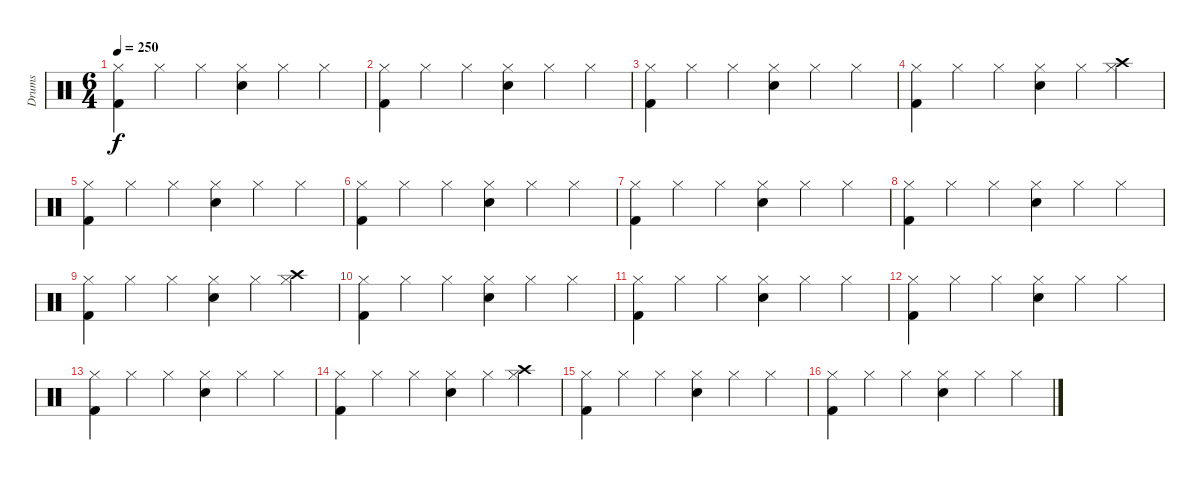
\track ("Drums" "Drums") {instrument percussion}
\staff {score}
\articulation defaults
\ts (6 4)
\tempo 250
\clef neutral
\ks c
("Hi-Hat (closed)" "Kick (hit) 2").4{dy f} "Hi-Hat (closed)".4 "Hi-Hat (closed)".4 ("Hi-Hat (closed)" "Snare (hit) 2").4 "Hi-Hat (closed)".4 "Hi-Hat (closed)".4 |
("Hi-Hat (closed)" "Kick (hit) 2").4 "Hi-Hat (closed)".4 "Hi-Hat (closed)".4 ("Hi-Hat (closed)" "Snare (hit) 2").4 "Hi-Hat (closed)".4 "Hi-Hat (closed)".4 |
("Hi-Hat (closed)" "Kick (hit) 2").4 "Hi-Hat (closed)".4 "Hi-Hat (closed)".4 ("Hi-Hat (closed)" "Snare (hit) 2").4 "Hi-Hat (closed)".4 "Hi-Hat (closed)".4 |
("Hi-Hat (closed)" "Kick (hit) 2").4 "Hi-Hat (closed)".4 "Hi-Hat (closed)".4 ("Hi-Hat (closed)" "Snare (hit) 2").4 "Hi-Hat (closed)".4 ("Hi-Hat (closed)" "Crash high (hit)").4 |
("Hi-Hat (closed)" "Kick (hit) 2").4 "Hi-Hat (closed)".4 "Hi-Hat (closed)".4 ("Hi-Hat (closed)" "Snare (hit) 2").4 "Hi-Hat (closed)".4 "Hi-Hat (closed)".4 |
("Hi-Hat (closed)" "Kick (hit) 2").4 "Hi-Hat (closed)".4 "Hi-Hat (closed)".4 ("Hi-Hat (closed)" "Snare (hit) 2").4 "Hi-Hat (closed)".4 "Hi-Hat (closed)".4 |
("Hi-Hat (closed)" "Kick (hit) 2").4 "Hi-Hat (closed)".4 "Hi-Hat (closed)".4 ("Hi-Hat (closed)" "Snare (hit) 2").4 "Hi-Hat (closed)".4 "Hi-Hat (closed)".4 |
("Hi-Hat (closed)" "Kick (hit) 2").4 "Hi-Hat (closed)".4 "Hi-Hat (closed)".4 ("Hi-Hat (closed)" "Snare (hit) 2").4 "Hi-Hat (closed)".4 "Hi-Hat (closed)".4 |
("Hi-Hat (closed)" "Kick (hit) 2").4 "Hi-Hat (closed)".4 "Hi-Hat (closed)".4 ("Hi-Hat (closed)" "Snare (hit) 2").4 "Hi-Hat (closed)".4 ("Hi-Hat (closed)" "Crash high (hit)").4 |
("Hi-Hat (closed)" "Kick (hit) 2").4 "Hi-Hat (closed)".4 "Hi-Hat (closed)".4 ("Hi-Hat (closed)" "Snare (hit) 2").4 "Hi-Hat (closed)".4 "Hi-Hat (closed)".4 |
("Hi-Hat (closed)" "Kick (hit) 2").4 "Hi-Hat (closed)".4 "Hi-Hat (closed)".4 ("Hi-Hat (closed)" "Snare (hit) 2").4 "Hi-Hat (closed)".4 "Hi-Hat (closed)".4 |
("Hi-Hat (closed)" "Kick (hit) 2").4 "Hi-Hat (closed)".4 "Hi-Hat (closed)".4 ("Hi-Hat (closed)" "Snare (hit) 2").4 "Hi-Hat (closed)".4 "Hi-Hat (closed)".4 |
("Hi-Hat (closed)" "Kick (hit) 2").4 "Hi-Hat (closed)".4 "Hi-Hat (closed)".4 ("Hi-Hat (closed)" "Snare (hit) 2").4 "Hi-Hat (closed)".4 "Hi-Hat (closed)".4 |
("Hi-Hat (closed)" "Kick (hit) 2").4 "Hi-Hat (closed)".4 "Hi-Hat (closed)".4 ("Hi-Hat (closed)" "Snare (hit) 2").4 "Hi-Hat (closed)".4 ("Hi-Hat (closed)" "Crash high (hit)").4 |
("Hi-Hat (closed)" "Kick (hit) 2").4 "Hi-Hat (closed)".4 "Hi-Hat (closed)".4 ("Hi-Hat (closed)" "Snare (hit) 2").4 "Hi-Hat (closed)".4 "Hi-Hat (closed)".4 |
("Hi-Hat (closed)" "Kick (hit) 2").4 "Hi-Hat (closed)".4 "Hi-Hat (closed)".4 ("Hi-Hat (closed)" "Snare (hit) 2").4 "Hi-Hat (closed)".4 "Hi-Hat (closed)".4
